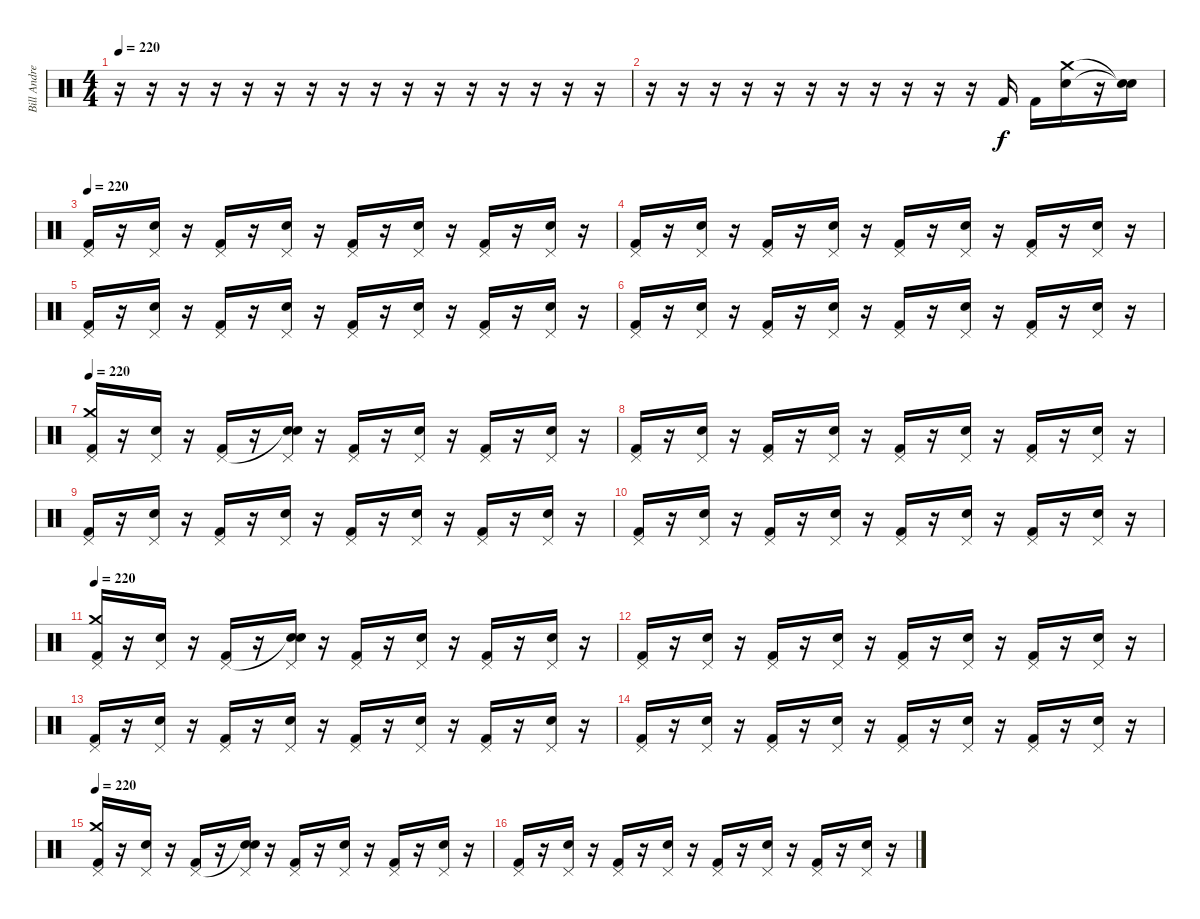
\track ("Bill Andrews" "Bill Andre") {instrument percussion}
\staff {score}
\articulation defaults
\ts (4 4)
\tempo 220
\clef neutral
\ks c
r.16{dy f} r.16 r.16 r.16 r.16 r.16 r.16 r.16 r.16 r.16 r.16 r.16 r.16 r.16 r.16 r.16 |
r.16 r.16 r.16 r.16 r.16 r.16 r.16 r.16 r.16 r.16 r.16 "Kick (hit) 2".16 "Kick (hit) 2".16 ("Crash medium (hit)" "Snare (hit) 2").16 r.16 ("Snare (hit)"{t} "Snare (hit)"{t}).16 |
\tempo 220
("Pedal Hi-Hat (hit)" "Kick (hit) 2").16 r.16 ("Pedal Hi-Hat (hit)" "Snare (hit) 2").16 r.16 ("Pedal Hi-Hat (hit)" "Kick (hit) 2").16 r.16 ("Pedal Hi-Hat (hit)" "Snare (hit) 2").16 r.16 ("Pedal Hi-Hat (hit)" "Kick (hit) 2").16 r.16 ("Pedal Hi-Hat (hit)" "Snare (hit) 2").16 r.16 ("Pedal Hi-Hat (hit)" "Kick (hit) 2").16 r.16 ("Pedal Hi-Hat (hit)" "Snare (hit) 2").16 r.16 |
("Pedal Hi-Hat (hit)" "Kick (hit) 2").16 r.16 ("Pedal Hi-Hat (hit)" "Snare (hit) 2").16 r.16 ("Pedal Hi-Hat (hit)" "Kick (hit) 2").16 r.16 ("Pedal Hi-Hat (hit)" "Snare (hit) 2").16 r.16 ("Pedal Hi-Hat (hit)" "Kick (hit) 2").16 r.16 ("Pedal Hi-Hat (hit)" "Snare (hit) 2").16 r.16 ("Pedal Hi-Hat (hit)" "Kick (hit) 2").16 r.16 ("Pedal Hi-Hat (hit)" "Snare (hit) 2").16 r.16 |
("Pedal Hi-Hat (hit)" "Kick (hit) 2").16 r.16 ("Pedal Hi-Hat (hit)" "Snare (hit) 2").16 r.16 ("Pedal Hi-Hat (hit)" "Kick (hit) 2").16 r.16 ("Pedal Hi-Hat (hit)" "Snare (hit) 2").16 r.16 ("Pedal Hi-Hat (hit)" "Kick (hit) 2").16 r.16 ("Pedal Hi-Hat (hit)" "Snare (hit) 2").16 r.16 ("Pedal Hi-Hat (hit)" "Kick (hit) 2").16 r.16 ("Pedal Hi-Hat (hit)" "Snare (hit) 2").16 r.16 |
("Pedal Hi-Hat (hit)" "Kick (hit) 2").16 r.16 ("Pedal Hi-Hat (hit)" "Snare (hit) 2").16 r.16 ("Pedal Hi-Hat (hit)" "Kick (hit) 2").16 r.16 ("Pedal Hi-Hat (hit)" "Snare (hit) 2").16 r.16 ("Pedal Hi-Hat (hit)" "Kick (hit) 2").16 r.16 ("Pedal Hi-Hat (hit)" "Snare (hit) 2").16 r.16 ("Pedal Hi-Hat (hit)" "Kick (hit) 2").16 r.16 ("Pedal Hi-Hat (hit)" "Snare (hit) 2").16 r.16 |
\tempo 220
("Crash medium (hit)" "Pedal Hi-Hat (hit)" "Kick (hit) 2").16 r.16 ("Pedal Hi-Hat (hit)" "Snare (hit) 2").16 r.16 ("Pedal Hi-Hat (hit)" "Kick (hit) 2").16 r.16 ("Snare (hit)"{t} "Pedal Hi-Hat (hit)" "Snare (hit) 2").16 r.16 ("Pedal Hi-Hat (hit)" "Kick (hit) 2").16 r.16 ("Pedal Hi-Hat (hit)" "Snare (hit) 2").16 r.16 ("Pedal Hi-Hat (hit)" "Kick (hit) 2").16 r.16 ("Pedal Hi-Hat (hit)" "Snare (hit) 2").16 r.16 |
("Pedal Hi-Hat (hit)" "Kick (hit) 2").16 r.16 ("Pedal Hi-Hat (hit)" "Snare (hit) 2").16 r.16 ("Pedal Hi-Hat (hit)" "Kick (hit) 2").16 r.16 ("Pedal Hi-Hat (hit)" "Snare (hit) 2").16 r.16 ("Pedal Hi-Hat (hit)" "Kick (hit) 2").16 r.16 ("Pedal Hi-Hat (hit)" "Snare (hit) 2").16 r.16 ("Pedal Hi-Hat (hit)" "Kick (hit) 2").16 r.16 ("Pedal Hi-Hat (hit)" "Snare (hit) 2").16 r.16 |
("Pedal Hi-Hat (hit)" "Kick (hit) 2").16 r.16 ("Pedal Hi-Hat (hit)" "Snare (hit) 2").16 r.16 ("Pedal Hi-Hat (hit)" "Kick (hit) 2").16 r.16 ("Pedal Hi-Hat (hit)" "Snare (hit) 2").16 r.16 ("Pedal Hi-Hat (hit)" "Kick (hit) 2").16 r.16 ("Pedal Hi-Hat (hit)" "Snare (hit) 2").16 r.16 ("Pedal Hi-Hat (hit)" "Kick (hit) 2").16 r.16 ("Pedal Hi-Hat (hit)" "Snare (hit) 2").16 r.16 |
("Pedal Hi-Hat (hit)" "Kick (hit) 2").16 r.16 ("Pedal Hi-Hat (hit)" "Snare (hit) 2").16 r.16 ("Pedal Hi-Hat (hit)" "Kick (hit) 2").16 r.16 ("Pedal Hi-Hat (hit)" "Snare (hit) 2").16 r.16 ("Pedal Hi-Hat (hit)" "Kick (hit) 2").16 r.16 ("Pedal Hi-Hat (hit)" "Snare (hit) 2").16 r.16 ("Pedal Hi-Hat (hit)" "Kick (hit) 2").16 r.16 ("Pedal Hi-Hat (hit)" "Snare (hit) 2").16 r.16 |
\tempo 220
("Crash medium (hit)" "Pedal Hi-Hat (hit)" "Kick (hit) 2").16 r.16 ("Pedal Hi-Hat (hit)" "Snare (hit) 2").16 r.16 ("Pedal Hi-Hat (hit)" "Kick (hit) 2").16 r.16 ("Snare (hit)"{t} "Pedal Hi-Hat (hit)" "Snare (hit) 2").16 r.16 ("Pedal Hi-Hat (hit)" "Kick (hit) 2").16 r.16 ("Pedal Hi-Hat (hit)" "Snare (hit) 2").16 r.16 ("Pedal Hi-Hat (hit)" "Kick (hit) 2").16 r.16 ("Pedal Hi-Hat (hit)" "Snare (hit) 2").16 r.16 |
("Pedal Hi-Hat (hit)" "Kick (hit) 2").16 r.16 ("Pedal Hi-Hat (hit)" "Snare (hit) 2").16 r.16 ("Pedal Hi-Hat (hit)" "Kick (hit) 2").16 r.16 ("Pedal Hi-Hat (hit)" "Snare (hit) 2").16 r.16 ("Pedal Hi-Hat (hit)" "Kick (hit) 2").16 r.16 ("Pedal Hi-Hat (hit)" "Snare (hit) 2").16 r.16 ("Pedal Hi-Hat (hit)" "Kick (hit) 2").16 r.16 ("Pedal Hi-Hat (hit)" "Snare (hit) 2").16 r.16 |
("Pedal Hi-Hat (hit)" "Kick (hit) 2").16 r.16 ("Pedal Hi-Hat (hit)" "Snare (hit) 2").16 r.16 ("Pedal Hi-Hat (hit)" "Kick (hit) 2").16 r.16 ("Pedal Hi-Hat (hit)" "Snare (hit) 2").16 r.16 ("Pedal Hi-Hat (hit)" "Kick (hit) 2").16 r.16 ("Pedal Hi-Hat (hit)" "Snare (hit) 2").16 r.16 ("Pedal Hi-Hat (hit)" "Kick (hit) 2").16 r.16 ("Pedal Hi-Hat (hit)" "Snare (hit) 2").16 r.16 |
("Pedal Hi-Hat (hit)" "Kick (hit) 2").16 r.16 ("Pedal Hi-Hat (hit)" "Snare (hit) 2").16 r.16 ("Pedal Hi-Hat (hit)" "Kick (hit) 2").16 r.16 ("Pedal Hi-Hat (hit)" "Snare (hit) 2").16 r.16 ("Pedal Hi-Hat (hit)" "Kick (hit) 2").16 r.16 ("Pedal Hi-Hat (hit)" "Snare (hit) 2").16 r.16 ("Pedal Hi-Hat (hit)" "Kick (hit) 2").16 r.16 ("Pedal Hi-Hat (hit)" "Snare (hit) 2").16 r.16 |
\tempo 220
("Crash medium (hit)" "Pedal Hi-Hat (hit)" "Kick (hit) 2").16 r.16 ("Pedal Hi-Hat (hit)" "Snare (hit) 2").16 r.16 ("Pedal Hi-Hat (hit)" "Kick (hit) 2").16 r.16 ("Snare (hit)"{t} "Pedal Hi-Hat (hit)" "Snare (hit) 2").16 r.16 ("Pedal Hi-Hat (hit)" "Kick (hit) 2").16 r.16 ("Pedal Hi-Hat (hit)" "Snare (hit) 2").16 r.16 ("Pedal Hi-Hat (hit)" "Kick (hit) 2").16 r.16 ("Pedal Hi-Hat (hit)" "Snare (hit) 2").16 r.16 |
("Pedal Hi-Hat (hit)" "Kick (hit) 2").16 r.16 ("Pedal Hi-Hat (hit)" "Snare (hit) 2").16 r.16 ("Pedal Hi-Hat (hit)" "Kick (hit) 2").16 r.16 ("Pedal Hi-Hat (hit)" "Snare (hit) 2").16 r.16 ("Pedal Hi-Hat (hit)" "Kick (hit) 2").16 r.16 ("Pedal Hi-Hat (hit)" "Snare (hit) 2").16 r.16 ("Pedal Hi-Hat (hit)" "Kick (hit) 2").16 r.16 ("Pedal Hi-Hat (hit)" "Snare (hit) 2").16 r.16
